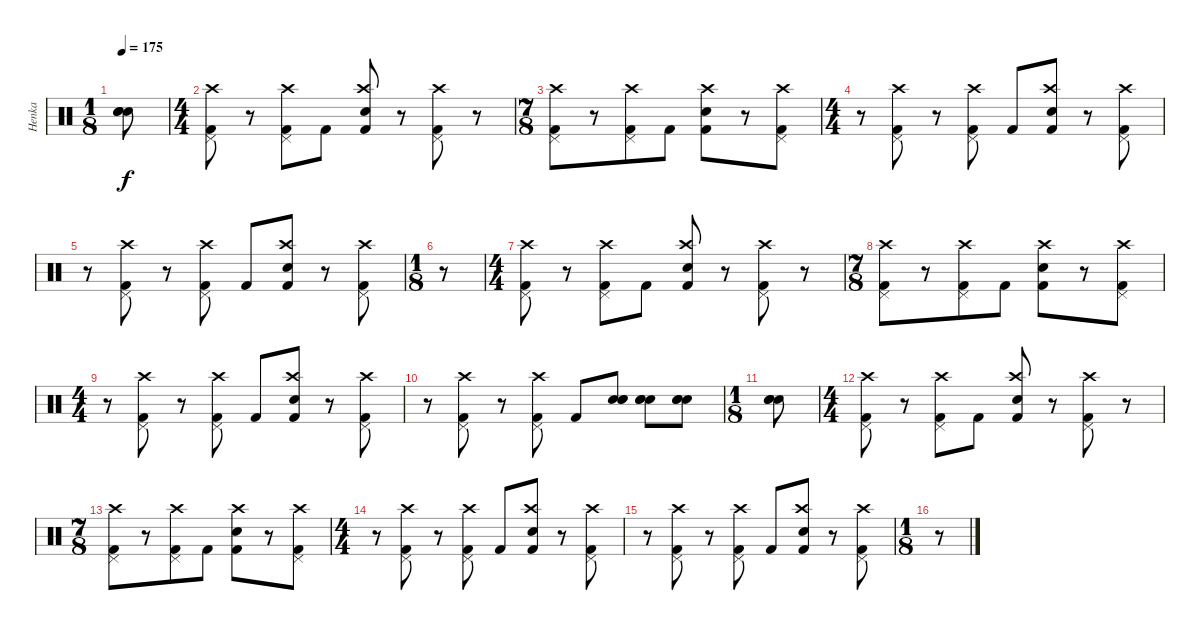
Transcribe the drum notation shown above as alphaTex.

\track ("Henka" "Henka") {instrument percussion}
\staff {score}
\articulation defaults
\ts (1 8)
\tempo 175
\clef neutral
\ks c
("Snare (hit) 2" "Electric Snare (hit)" "Snare (hit) 2").8{dy f} |
\ts (4 4)
("Crash high (hit)" "Pedal Hi-Hat (hit)" "Kick (hit) 2").8 r.8 ("Crash high (hit)" "Pedal Hi-Hat (hit)" "Kick (hit) 2").8 "Kick (hit) 2".8 ("Crash high (hit)" "Snare (hit) 2" "Kick (hit) 2").8 r.8 ("Crash high (hit)" "Pedal Hi-Hat (hit)" "Kick (hit) 2").8 r.8 |
\ts (7 8)
("Crash high (hit)" "Pedal Hi-Hat (hit)" "Kick (hit) 2").8 r.8 ("Crash high (hit)" "Pedal Hi-Hat (hit)" "Kick (hit) 2").8 "Kick (hit) 2".8 ("Crash high (hit)" "Snare (hit) 2" "Kick (hit) 2").8 r.8 ("Crash high (hit)" "Pedal Hi-Hat (hit)" "Kick (hit) 2").8 |
\ts (4 4)
r.8 ("Crash high (hit)" "Pedal Hi-Hat (hit)" "Kick (hit) 2").8 r.8 ("Crash high (hit)" "Pedal Hi-Hat (hit)" "Kick (hit) 2").8 "Kick (hit) 2".8 ("Crash high (hit)" "Snare (hit) 2" "Kick (hit) 2").8 r.8 ("Crash high (hit)" "Pedal Hi-Hat (hit)" "Kick (hit) 2").8 |
r.8 ("Crash high (hit)" "Pedal Hi-Hat (hit)" "Kick (hit) 2").8 r.8 ("Crash high (hit)" "Pedal Hi-Hat (hit)" "Kick (hit) 2").8 "Kick (hit) 2".8 ("Crash high (hit)" "Snare (hit) 2" "Kick (hit) 2").8 r.8 ("Crash high (hit)" "Pedal Hi-Hat (hit)" "Kick (hit) 2").8 |
\ts (1 8)
r.8 |
\ts (4 4)
("Crash high (hit)" "Pedal Hi-Hat (hit)" "Kick (hit) 2").8 r.8 ("Crash high (hit)" "Pedal Hi-Hat (hit)" "Kick (hit) 2").8 "Kick (hit) 2".8 ("Crash high (hit)" "Snare (hit) 2" "Kick (hit) 2").8 r.8 ("Crash high (hit)" "Pedal Hi-Hat (hit)" "Kick (hit) 2").8 r.8 |
\ts (7 8)
("Crash high (hit)" "Pedal Hi-Hat (hit)" "Kick (hit) 2").8 r.8 ("Crash high (hit)" "Pedal Hi-Hat (hit)" "Kick (hit) 2").8 "Kick (hit) 2".8 ("Crash high (hit)" "Snare (hit) 2" "Kick (hit) 2").8 r.8 ("Crash high (hit)" "Pedal Hi-Hat (hit)" "Kick (hit) 2").8 |
\ts (4 4)
r.8 ("Crash high (hit)" "Pedal Hi-Hat (hit)" "Kick (hit) 2").8 r.8 ("Crash high (hit)" "Pedal Hi-Hat (hit)" "Kick (hit) 2").8 "Kick (hit) 2".8 ("Crash high (hit)" "Snare (hit) 2" "Kick (hit) 2").8 r.8 ("Crash high (hit)" "Pedal Hi-Hat (hit)" "Kick (hit) 2").8 |
r.8 ("Crash high (hit)" "Pedal Hi-Hat (hit)" "Kick (hit) 2").8 r.8 ("Crash high (hit)" "Pedal Hi-Hat (hit)" "Kick (hit) 2").8 "Kick (hit) 2".8 ("Snare (hit) 2" "Electric Snare (hit)" "Snare (hit) 2").8 ("Snare (hit) 2" "Electric Snare (hit)" "Snare (hit) 2").8 ("Snare (hit) 2" "Electric Snare (hit)" "Snare (hit) 2").8 |
\ts (1 8)
("Snare (hit) 2" "Electric Snare (hit)" "Snare (hit) 2").8 |
\ts (4 4)
("Crash high (hit)" "Pedal Hi-Hat (hit)" "Kick (hit) 2").8 r.8 ("Crash high (hit)" "Pedal Hi-Hat (hit)" "Kick (hit) 2").8 "Kick (hit) 2".8 ("Crash high (hit)" "Snare (hit) 2" "Kick (hit) 2").8 r.8 ("Crash high (hit)" "Pedal Hi-Hat (hit)" "Kick (hit) 2").8 r.8 |
\ts (7 8)
("Crash high (hit)" "Pedal Hi-Hat (hit)" "Kick (hit) 2").8 r.8 ("Crash high (hit)" "Pedal Hi-Hat (hit)" "Kick (hit) 2").8 "Kick (hit) 2".8 ("Crash high (hit)" "Snare (hit) 2" "Kick (hit) 2").8 r.8 ("Crash high (hit)" "Pedal Hi-Hat (hit)" "Kick (hit) 2").8 |
\ts (4 4)
r.8 ("Crash high (hit)" "Pedal Hi-Hat (hit)" "Kick (hit) 2").8 r.8 ("Crash high (hit)" "Pedal Hi-Hat (hit)" "Kick (hit) 2").8 "Kick (hit) 2".8 ("Crash high (hit)" "Snare (hit) 2" "Kick (hit) 2").8 r.8 ("Crash high (hit)" "Pedal Hi-Hat (hit)" "Kick (hit) 2").8 |
r.8 ("Crash high (hit)" "Pedal Hi-Hat (hit)" "Kick (hit) 2").8 r.8 ("Crash high (hit)" "Pedal Hi-Hat (hit)" "Kick (hit) 2").8 "Kick (hit) 2".8 ("Crash high (hit)" "Snare (hit) 2" "Kick (hit) 2").8 r.8 ("Crash high (hit)" "Pedal Hi-Hat (hit)" "Kick (hit) 2").8 |
\ts (1 8)
r.8
